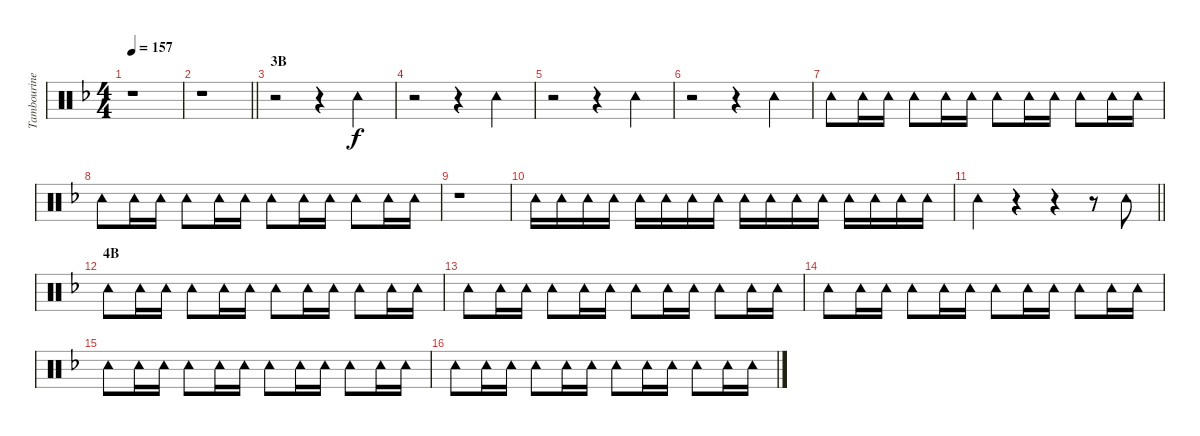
\track ("Tambourine" "Tambourine") {instrument percussion}
\staff {score}
\articulation defaults
\ts (4 4)
\tempo 157
\clef neutral
\ks f
r.1{dy f} |
\barLineRight lightlight
r.1 |
\section ("" "3B")
r.2 r.4 "Tambourine (hit)".4 |
r.2 r.4 "Tambourine (hit)".4 |
r.2 r.4 "Tambourine (hit)".4 |
r.2 r.4 "Tambourine (hit)".4 |
"Tambourine (hit)".8 "Tambourine (hit)".16 "Tambourine (hit)".16 "Tambourine (hit)".8 "Tambourine (hit)".16 "Tambourine (hit)".16 "Tambourine (hit)".8 "Tambourine (hit)".16 "Tambourine (hit)".16 "Tambourine (hit)".8 "Tambourine (hit)".16 "Tambourine (hit)".16 |
"Tambourine (hit)".8 "Tambourine (hit)".16 "Tambourine (hit)".16 "Tambourine (hit)".8 "Tambourine (hit)".16 "Tambourine (hit)".16 "Tambourine (hit)".8 "Tambourine (hit)".16 "Tambourine (hit)".16 "Tambourine (hit)".8 "Tambourine (hit)".16 "Tambourine (hit)".16 |
r.1 |
"Tambourine (hit)".16 "Tambourine (hit)".16 "Tambourine (hit)".16 "Tambourine (hit)".16 "Tambourine (hit)".16 "Tambourine (hit)".16 "Tambourine (hit)".16 "Tambourine (hit)".16 "Tambourine (hit)".16 "Tambourine (hit)".16 "Tambourine (hit)".16 "Tambourine (hit)".16 "Tambourine (hit)".16 "Tambourine (hit)".16 "Tambourine (hit)".16 "Tambourine (hit)".16 |
\barLineRight lightlight "Tambourine (hit)".4
r.4 r.4 r.8 "Tambourine (hit)".8 |
\section ("" "4B")
"Tambourine (hit)".8 "Tambourine (hit)".16 "Tambourine (hit)".16 "Tambourine (hit)".8 "Tambourine (hit)".16 "Tambourine (hit)".16 "Tambourine (hit)".8 "Tambourine (hit)".16 "Tambourine (hit)".16 "Tambourine (hit)".8 "Tambourine (hit)".16 "Tambourine (hit)".16 |
"Tambourine (hit)".8 "Tambourine (hit)".16 "Tambourine (hit)".16 "Tambourine (hit)".8 "Tambourine (hit)".16 "Tambourine (hit)".16 "Tambourine (hit)".8 "Tambourine (hit)".16 "Tambourine (hit)".16 "Tambourine (hit)".8 "Tambourine (hit)".16 "Tambourine (hit)".16 |
"Tambourine (hit)".8 "Tambourine (hit)".16 "Tambourine (hit)".16 "Tambourine (hit)".8 "Tambourine (hit)".16 "Tambourine (hit)".16 "Tambourine (hit)".8 "Tambourine (hit)".16 "Tambourine (hit)".16 "Tambourine (hit)".8 "Tambourine (hit)".16 "Tambourine (hit)".16 |
"Tambourine (hit)".8 "Tambourine (hit)".16 "Tambourine (hit)".16 "Tambourine (hit)".8 "Tambourine (hit)".16 "Tambourine (hit)".16 "Tambourine (hit)".8 "Tambourine (hit)".16 "Tambourine (hit)".16 "Tambourine (hit)".8 "Tambourine (hit)".16 "Tambourine (hit)".16 |
"Tambourine (hit)".8 "Tambourine (hit)".16 "Tambourine (hit)".16 "Tambourine (hit)".8 "Tambourine (hit)".16 "Tambourine (hit)".16 "Tambourine (hit)".8 "Tambourine (hit)".16 "Tambourine (hit)".16 "Tambourine (hit)".8 "Tambourine (hit)".16 "Tambourine (hit)".16
